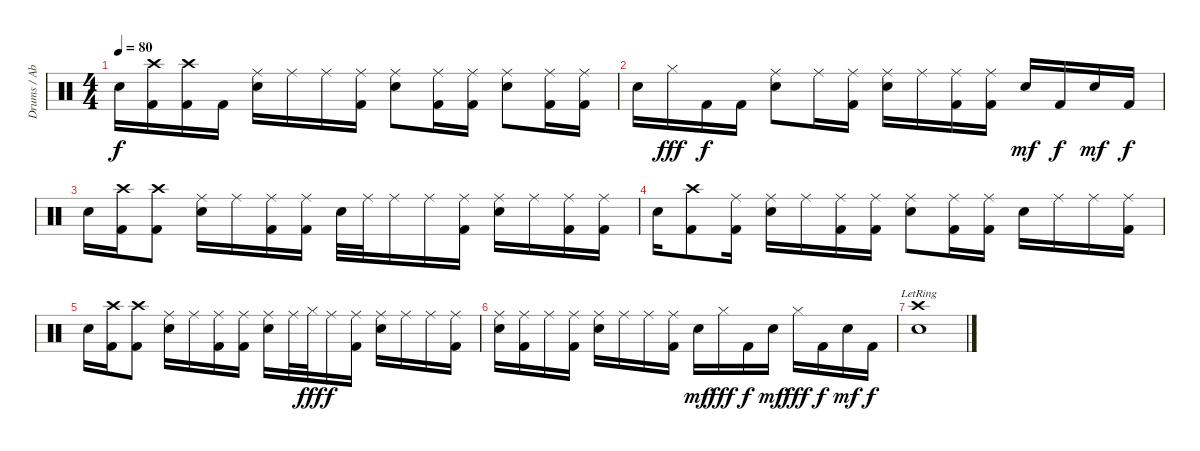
\track ("Drums / Abe Cunningham" "Drums / Ab") {instrument percussion}
\staff {score}
\articulation defaults
\ts (4 4)
\tempo 80
\clef neutral
\ks c "Electric Snare (hit)".16{dy f}
("Crash high (hit)" "Kick (hit) 2").16 ("Crash high (hit)" "Kick (hit) 2").16 "Kick (hit) 2".16 ("Ride (middle)" "Electric Snare (hit)").16 "Ride (middle)".16 "Ride (middle)".16 ("Ride (middle)" "Kick (hit) 2").16 ("Ride (middle)" "Electric Snare (hit)").8 ("Ride (middle)" "Kick (hit) 2").16 ("Ride (middle)" "Kick (hit) 2").16 ("Ride (middle)" "Electric Snare (hit)").8 ("Ride (middle)" "Kick (hit) 2").16 ("Ride (middle)" "Kick (hit) 2").16 |
"Electric Snare (hit)".16 "Hi-Hat (closed)".16{dy fff} "Kick (hit) 2".16{dy f} "Kick (hit) 2".16 ("Ride (middle)" "Electric Snare (hit)").8 "Ride (middle)".16 ("Ride (middle)" "Kick (hit) 2").16 ("Ride (middle)" "Electric Snare (hit)").16 "Ride (middle)".16 ("Ride (middle)" "Kick (hit) 2").16 ("Ride (middle)" "Kick (hit) 2").16 "Electric Snare (hit)".16{dy mf} "Kick (hit) 2".16{dy f} "Electric Snare (hit)".16{dy mf} "Kick (hit) 2".16{dy f} |
"Electric Snare (hit)".16 ("Crash high (hit)" "Kick (hit) 2").16 ("Crash high (hit)" "Kick (hit) 2").8 ("Ride (middle)" "Electric Snare (hit)").16 "Ride (middle)".16 ("Ride (middle)" "Kick (hit) 2").16 ("Ride (middle)" "Kick (hit) 2").16 "Electric Snare (hit)".32 "Ride (middle)".32 "Ride (middle)".16 "Ride (middle)".16 ("Ride (middle)" "Kick (hit) 2").16 ("Ride (middle)" "Electric Snare (hit)").16 "Ride (middle)".16 ("Ride (middle)" "Kick (hit) 2").16 ("Ride (middle)" "Kick (hit) 2").16 |
"Electric Snare (hit)".16 ("Crash high (hit)" "Kick (hit) 2").8 ("Ride (middle)" "Kick (hit) 2").16 ("Ride (middle)" "Electric Snare (hit)").16 "Ride (middle)".16 ("Ride (middle)" "Kick (hit) 2").16 ("Ride (middle)" "Kick (hit) 2").16 ("Ride (middle)" "Electric Snare (hit)").8 ("Ride (middle)" "Kick (hit) 2").16 ("Ride (middle)" "Kick (hit) 2").16 "Electric Snare (hit)".16 "Ride (middle)".16 "Ride (middle)".16 ("Ride (middle)" "Kick (hit) 2").16 |
"Electric Snare (hit)".16 ("Crash high (hit)" "Kick (hit) 2").16 ("Crash high (hit)" "Kick (hit) 2").8 ("Ride (middle)" "Electric Snare (hit)").16 "Ride (middle)".16 ("Ride (middle)" "Kick (hit) 2").16 ("Ride (middle)" "Kick (hit) 2").16 ("Ride (middle)" "Electric Snare (hit)").16 "Ride (middle)".32 "Hi-Hat (closed)".32{dy fff} "Ride (middle)".16{dy f} ("Ride (middle)" "Kick (hit) 2").16 ("Ride (middle)" "Electric Snare (hit)").16 "Ride (middle)".16 "Ride (middle)".16 ("Ride (middle)" "Kick (hit) 2").16 |
("Ride (middle)" "Electric Snare (hit)").16 ("Ride (middle)" "Kick (hit) 2").16 "Ride (middle)".16 ("Ride (middle)" "Kick (hit) 2").16 ("Ride (middle)" "Electric Snare (hit)").16 "Ride (middle)".16 "Ride (middle)".16 ("Ride (middle)" "Kick (hit) 2").16 "Electric Snare (hit)".16{dy mf} "Hi-Hat (closed)".16{dy fff} "Kick (hit) 2".16{dy f} "Electric Snare (hit)".16{dy mf} "Hi-Hat (closed)".16{dy fff} "Kick (hit) 2".16{dy f} "Electric Snare (hit)".16{dy mf} "Kick (hit) 2".16{dy f} |
("Crash high (hit)"{lr} "Electric Snare (hit)"{lr}).1
